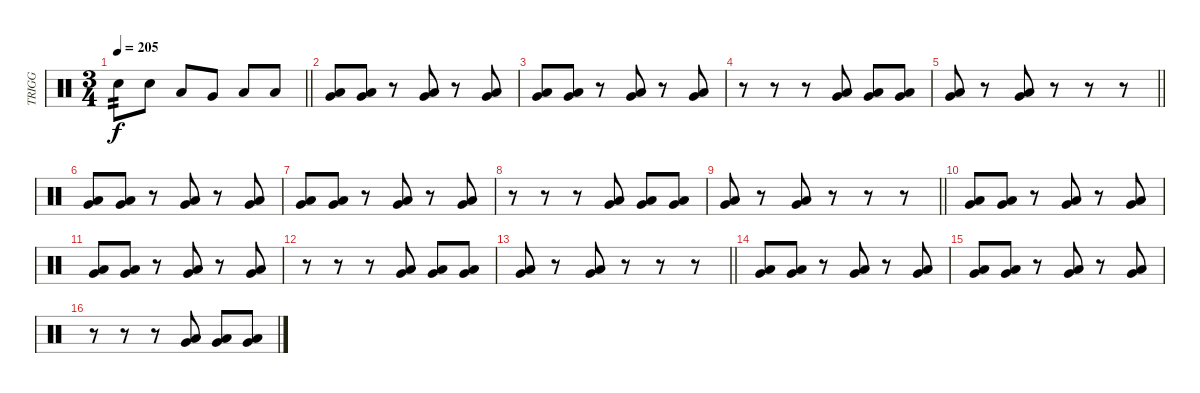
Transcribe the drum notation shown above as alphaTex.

\track ("TRIGG" "TRIGG") {instrument percussion}
\staff {score}
\articulation defaults
\ts (3 4)
\tempo 205
\clef neutral
\barLineRight lightlight
\ks c "Electric Snare (hit)".8{tp 2 dy f} "Electric Snare (hit)".8 "Low Tom (hit)".8 "Very Low Tom (hit)".8 "Low Floor Tom (hit)".8 "Low Floor Tom (hit)".8
|
("Very Low Tom (hit)" "Low Tom (hit)").8 ("Very Low Tom (hit)" "Low Tom (hit)").8 r.8 ("Low Tom (hit)" "Very Low Tom (hit)").8 r.8 ("Low Tom (hit)" "Very Low Tom (hit)").8 |
("Low Tom (hit)" "Very Low Tom (hit)").8 ("Low Tom (hit)" "Very Low Tom (hit)").8 r.8 ("Low Tom (hit)" "Very Low Tom (hit)").8 r.8 ("Low Tom (hit)" "Very Low Tom (hit)").8 |
r.8 r.8 r.8 ("Low Tom (hit)" "Very Low Tom (hit)").8 ("Low Tom (hit)" "Very Low Tom (hit)").8 ("Low Tom (hit)" "Very Low Tom (hit)").8 |
\barLineRight lightlight
("Low Tom (hit)" "Very Low Tom (hit)").8 r.8 ("Low Tom (hit)" "Very Low Tom (hit)").8 r.8 r.8 r.8 |
("Very Low Tom (hit)" "Low Tom (hit)").8 ("Very Low Tom (hit)" "Low Tom (hit)").8 r.8 ("Low Tom (hit)" "Very Low Tom (hit)").8 r.8 ("Low Tom (hit)" "Very Low Tom (hit)").8 |
("Low Tom (hit)" "Very Low Tom (hit)").8 ("Low Tom (hit)" "Very Low Tom (hit)").8 r.8 ("Low Tom (hit)" "Very Low Tom (hit)").8 r.8 ("Low Tom (hit)" "Very Low Tom (hit)").8 |
r.8 r.8 r.8 ("Low Tom (hit)" "Very Low Tom (hit)").8 ("Low Tom (hit)" "Very Low Tom (hit)").8 ("Low Tom (hit)" "Very Low Tom (hit)").8 |
\barLineRight lightlight
("Low Tom (hit)" "Very Low Tom (hit)").8 r.8 ("Low Tom (hit)" "Very Low Tom (hit)").8 r.8 r.8 r.8 |
("Very Low Tom (hit)" "Low Tom (hit)").8 ("Very Low Tom (hit)" "Low Tom (hit)").8 r.8 ("Low Tom (hit)" "Very Low Tom (hit)").8 r.8 ("Low Tom (hit)" "Very Low Tom (hit)").8 |
("Low Tom (hit)" "Very Low Tom (hit)").8 ("Low Tom (hit)" "Very Low Tom (hit)").8 r.8 ("Low Tom (hit)" "Very Low Tom (hit)").8 r.8 ("Low Tom (hit)" "Very Low Tom (hit)").8 |
r.8 r.8 r.8 ("Low Tom (hit)" "Very Low Tom (hit)").8 ("Low Tom (hit)" "Very Low Tom (hit)").8 ("Low Tom (hit)" "Very Low Tom (hit)").8 |
\barLineRight lightlight
("Low Tom (hit)" "Very Low Tom (hit)").8 r.8 ("Low Tom (hit)" "Very Low Tom (hit)").8 r.8 r.8 r.8 |
("Very Low Tom (hit)" "Low Tom (hit)").8 ("Very Low Tom (hit)" "Low Tom (hit)").8 r.8 ("Low Tom (hit)" "Very Low Tom (hit)").8 r.8 ("Low Tom (hit)" "Very Low Tom (hit)").8 |
("Low Tom (hit)" "Very Low Tom (hit)").8 ("Low Tom (hit)" "Very Low Tom (hit)").8 r.8 ("Low Tom (hit)" "Very Low Tom (hit)").8 r.8 ("Low Tom (hit)" "Very Low Tom (hit)").8 |
r.8 r.8 r.8 ("Low Tom (hit)" "Very Low Tom (hit)").8 ("Low Tom (hit)" "Very Low Tom (hit)").8 ("Low Tom (hit)" "Very Low Tom (hit)").8
